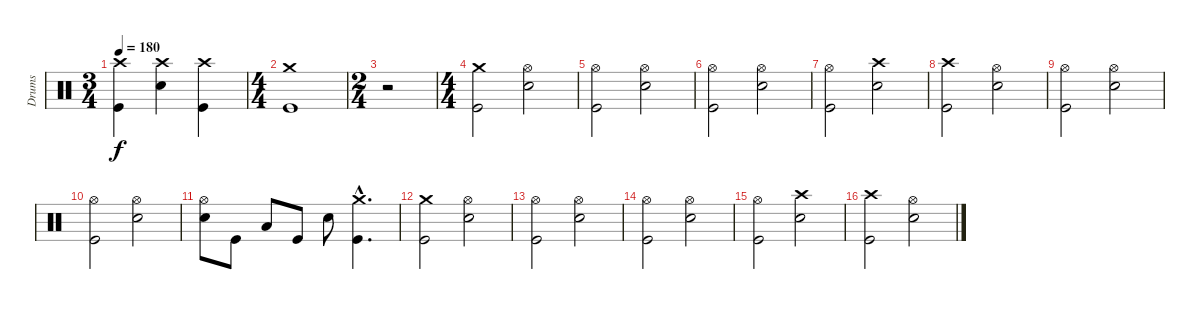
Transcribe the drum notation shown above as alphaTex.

\track ("Drums" "Drums") {instrument percussion}
\staff {score}
\articulation defaults
\ts (3 4)
\tempo 180
\clef neutral
\ks c
("Crash high (hit)" "Kick (hit)").4{dy f} ("Crash high (hit)" "Electric Snare (hit)").4 ("Crash high (hit)" "Kick (hit)").4 |
\ts (4 4)
("Crash medium (hit)" "Kick (hit)").1 |
\ts (2 4)
r.2 |
\ts (4 4)
("Crash medium (hit)" "Kick (hit)").2 ("Hi-Hat (open)" "Electric Snare (hit)").2 |
("Hi-Hat (open)" "Kick (hit)").2 ("Hi-Hat (open)" "Electric Snare (hit)").2 |
("Hi-Hat (open)" "Kick (hit)").2 ("Hi-Hat (open)" "Electric Snare (hit)").2 |
("Hi-Hat (open)" "Kick (hit)").2 ("Crash high (hit)" "Electric Snare (hit)").2 |
("Crash high (hit)" "Kick (hit)").2 ("Hi-Hat (open)" "Electric Snare (hit)").2 |
("Hi-Hat (open)" "Kick (hit)").2 ("Hi-Hat (open)" "Electric Snare (hit)").2 |
("Hi-Hat (open)" "Kick (hit)").2 ("Hi-Hat (open)" "Electric Snare (hit)").2 |
("Hi-Hat (open)" "Electric Snare (hit)").8 "Kick (hit)".8 "Low Tom (hit)".8 "Kick (hit)".8 "Electric Snare (hit)".8 ("Crash medium (hit)"{hac} "Kick (hit)"{hac}).4{d} |
("Crash medium (hit)" "Kick (hit)").2 ("Hi-Hat (open)" "Electric Snare (hit)").2 |
("Hi-Hat (open)" "Kick (hit)").2 ("Hi-Hat (open)" "Electric Snare (hit)").2 |
("Hi-Hat (open)" "Kick (hit)").2 ("Hi-Hat (open)" "Electric Snare (hit)").2 |
("Hi-Hat (open)" "Kick (hit)").2 ("Crash high (hit)" "Electric Snare (hit)").2 |
("Crash high (hit)" "Kick (hit)").2 ("Hi-Hat (open)" "Electric Snare (hit)").2
